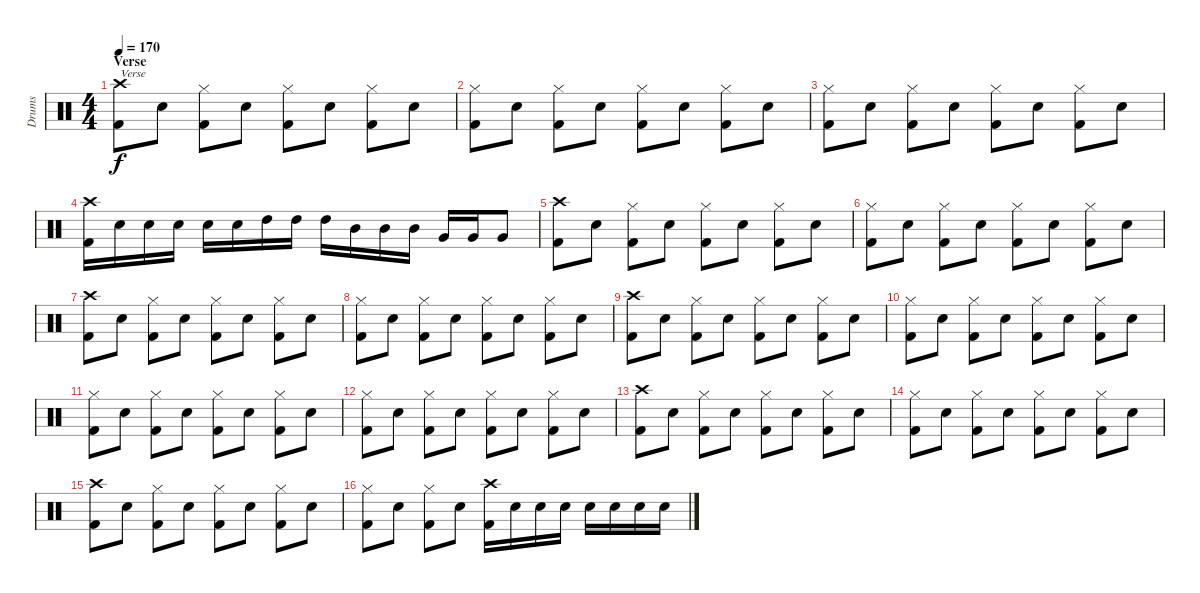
\track ("Drums" "Drums") {instrument percussion}
\staff {score}
\articulation defaults
\ts (4 4)
\section ("" "Verse")
\tempo 170
\clef neutral
\ks c
("Crash high (hit)" "Kick (hit) 2").8{txt "Verse" dy f} "Electric Snare (hit)".8 ("Hi-Hat (closed)" "Kick (hit) 2").8 "Electric Snare (hit)".8 ("Hi-Hat (closed)" "Kick (hit) 2").8 "Electric Snare (hit)".8 ("Hi-Hat (closed)" "Kick (hit) 2").8 "Electric Snare (hit)".8 |
("Hi-Hat (closed)" "Kick (hit) 2").8 "Electric Snare (hit)".8 ("Hi-Hat (closed)" "Kick (hit) 2").8 "Electric Snare (hit)".8 ("Hi-Hat (closed)" "Kick (hit) 2").8 "Electric Snare (hit)".8 ("Hi-Hat (closed)" "Kick (hit) 2").8 "Electric Snare (hit)".8 |
("Hi-Hat (closed)" "Kick (hit) 2").8 "Electric Snare (hit)".8 ("Hi-Hat (closed)" "Kick (hit) 2").8 "Electric Snare (hit)".8 ("Hi-Hat (closed)" "Kick (hit) 2").8 "Electric Snare (hit)".8 ("Hi-Hat (closed)" "Kick (hit) 2").8 "Electric Snare (hit)".8 |
("Crash high (hit)" "Kick (hit) 2").16 "Electric Snare (hit)".16 "Electric Snare (hit)".16 "Electric Snare (hit)".16 "Electric Snare (hit)".16 "Electric Snare (hit)".16 "High Tom (hit)".16 "High Tom (hit)".16 "High Tom (hit)".16 "Mid Tom (hit)".16 "Mid Tom (hit)".16 "Mid Tom (hit)".16 "Very Low Tom (hit)".16 "Very Low Tom (hit)".16 "Very Low Tom (hit)".8 |
("Crash high (hit)" "Kick (hit) 2").8 "Electric Snare (hit)".8 ("Hi-Hat (closed)" "Kick (hit) 2").8 "Electric Snare (hit)".8 ("Hi-Hat (closed)" "Kick (hit) 2").8 "Electric Snare (hit)".8 ("Hi-Hat (closed)" "Kick (hit) 2").8 "Electric Snare (hit)".8 |
("Hi-Hat (closed)" "Kick (hit) 2").8 "Electric Snare (hit)".8 ("Hi-Hat (closed)" "Kick (hit) 2").8 "Electric Snare (hit)".8 ("Hi-Hat (closed)" "Kick (hit) 2").8 "Electric Snare (hit)".8 ("Hi-Hat (closed)" "Kick (hit) 2").8 "Electric Snare (hit)".8 |
("Crash high (hit)" "Kick (hit) 2").8 "Electric Snare (hit)".8 ("Hi-Hat (closed)" "Kick (hit) 2").8 "Electric Snare (hit)".8 ("Hi-Hat (closed)" "Kick (hit) 2").8 "Electric Snare (hit)".8 ("Hi-Hat (closed)" "Kick (hit) 2").8 "Electric Snare (hit)".8 |
("Hi-Hat (closed)" "Kick (hit) 2").8 "Electric Snare (hit)".8 ("Hi-Hat (closed)" "Kick (hit) 2").8 "Electric Snare (hit)".8 ("Hi-Hat (closed)" "Kick (hit) 2").8 "Electric Snare (hit)".8 ("Hi-Hat (closed)" "Kick (hit) 2").8 "Electric Snare (hit)".8 |
("Crash high (hit)" "Kick (hit) 2").8 "Electric Snare (hit)".8 ("Hi-Hat (closed)" "Kick (hit) 2").8 "Electric Snare (hit)".8 ("Hi-Hat (closed)" "Kick (hit) 2").8 "Electric Snare (hit)".8 ("Hi-Hat (closed)" "Kick (hit) 2").8 "Electric Snare (hit)".8 |
("Hi-Hat (closed)" "Kick (hit) 2").8 "Electric Snare (hit)".8 ("Hi-Hat (closed)" "Kick (hit) 2").8 "Electric Snare (hit)".8 ("Hi-Hat (closed)" "Kick (hit) 2").8 "Electric Snare (hit)".8 ("Hi-Hat (closed)" "Kick (hit) 2").8 "Electric Snare (hit)".8 |
("Hi-Hat (closed)" "Kick (hit) 2").8 "Electric Snare (hit)".8 ("Hi-Hat (closed)" "Kick (hit) 2").8 "Electric Snare (hit)".8 ("Hi-Hat (closed)" "Kick (hit) 2").8 "Electric Snare (hit)".8 ("Hi-Hat (closed)" "Kick (hit) 2").8 "Electric Snare (hit)".8 |
("Hi-Hat (closed)" "Kick (hit) 2").8 "Electric Snare (hit)".8 ("Hi-Hat (closed)" "Kick (hit) 2").8 "Electric Snare (hit)".8 ("Hi-Hat (closed)" "Kick (hit) 2").8 "Electric Snare (hit)".8 ("Hi-Hat (closed)" "Kick (hit) 2").8 "Electric Snare (hit)".8 |
("Crash high (hit)" "Kick (hit) 2").8 "Electric Snare (hit)".8 ("Hi-Hat (closed)" "Kick (hit) 2").8 "Electric Snare (hit)".8 ("Hi-Hat (closed)" "Kick (hit) 2").8 "Electric Snare (hit)".8 ("Hi-Hat (closed)" "Kick (hit) 2").8 "Electric Snare (hit)".8 |
("Hi-Hat (closed)" "Kick (hit) 2").8 "Electric Snare (hit)".8 ("Hi-Hat (closed)" "Kick (hit) 2").8 "Electric Snare (hit)".8 ("Hi-Hat (closed)" "Kick (hit) 2").8 "Electric Snare (hit)".8 ("Hi-Hat (closed)" "Kick (hit) 2").8 "Electric Snare (hit)".8 |
("Crash high (hit)" "Kick (hit) 2").8 "Electric Snare (hit)".8 ("Hi-Hat (closed)" "Kick (hit) 2").8 "Electric Snare (hit)".8 ("Hi-Hat (closed)" "Kick (hit) 2").8 "Electric Snare (hit)".8 ("Hi-Hat (closed)" "Kick (hit) 2").8 "Electric Snare (hit)".8 |
("Hi-Hat (closed)" "Kick (hit) 2").8 "Electric Snare (hit)".8 ("Hi-Hat (closed)" "Kick (hit) 2").8 "Electric Snare (hit)".8 ("Crash high (hit)" "Kick (hit) 2").16 "Electric Snare (hit)".16 "Electric Snare (hit)".16 "Electric Snare (hit)".16 "Electric Snare (hit)".16 "Electric Snare (hit)".16 "Electric Snare (hit)".16 "Electric Snare (hit)".16
